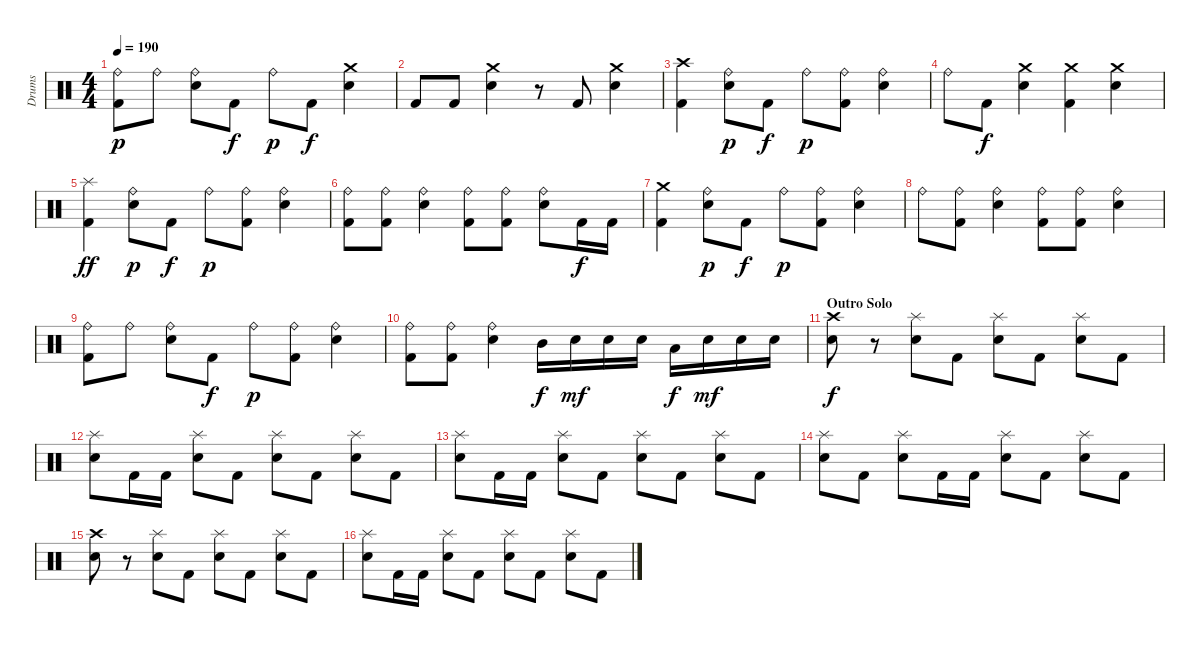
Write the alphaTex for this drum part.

\track ("Drums" "Drums") {instrument percussion}
\staff {score}
\articulation defaults
\ts (4 4)
\tempo 190
\clef neutral
\ks c
("Ride (bell)" "Kick (hit) 2").8{dy p} "Ride (bell)".8 ("Ride (bell)" "Electric Snare (hit)").8 "Kick (hit) 2".8{dy f} "Ride (bell)".8{dy p} "Kick (hit) 2".8{dy f} ("Crash medium (hit)" "Electric Snare (hit)").4 |
"Kick (hit) 2".8 "Kick (hit) 2".8 ("Crash medium (hit)" "Electric Snare (hit)").4 r.8 "Kick (hit) 2".8 ("Crash medium (hit)" "Electric Snare (hit)").4 |
("Crash high (hit)" "Kick (hit) 2").4 ("Ride (bell)" "Electric Snare (hit)").8{dy p} "Kick (hit) 2".8{dy f} "Ride (bell)".8{dy p} ("Ride (bell)" "Kick (hit) 2").8 ("Ride (bell)" "Electric Snare (hit)").4 |
"Ride (bell)".8 "Kick (hit) 2".8{dy f} ("Crash medium (hit)" "Electric Snare (hit)").4 ("Crash medium (hit)" "Kick (hit) 2").4 ("Crash medium (hit)" "Electric Snare (hit)").4 |
("Splash (hit)" "Kick (hit) 2").4{dy ff} ("Ride (bell)" "Electric Snare (hit)").8{dy p} "Kick (hit) 2".8{dy f} "Ride (bell)".8{dy p} ("Ride (bell)" "Kick (hit) 2").8 ("Ride (bell)" "Electric Snare (hit)").4 |
("Ride (bell)" "Kick (hit) 2").8 ("Ride (bell)" "Kick (hit) 2").8 ("Ride (bell)" "Electric Snare (hit)").4 ("Ride (bell)" "Kick (hit) 2").8 ("Ride (bell)" "Kick (hit) 2").8 ("Ride (bell)" "Electric Snare (hit)").8 "Kick (hit) 2".16{dy f} "Kick (hit) 2".16 |
("Crash medium (hit)" "Kick (hit) 2").4 ("Ride (bell)" "Electric Snare (hit)").8{dy p} "Kick (hit) 2".8{dy f} "Ride (bell)".8{dy p} ("Ride (bell)" "Kick (hit) 2").8 ("Ride (bell)" "Electric Snare (hit)").4 |
"Ride (bell)".8 ("Ride (bell)" "Kick (hit) 2").8 ("Ride (bell)" "Electric Snare (hit)").4 ("Ride (bell)" "Kick (hit) 2").8 ("Ride (bell)" "Kick (hit) 2").8 ("Ride (bell)" "Electric Snare (hit)").4 |
("Ride (bell)" "Kick (hit) 2").8 "Ride (bell)".8 ("Ride (bell)" "Electric Snare (hit)").8 "Kick (hit) 2".8{dy f} "Ride (bell)".8{dy p} ("Ride (bell)" "Kick (hit) 2").8 ("Ride (bell)" "Electric Snare (hit)").4 |
("Ride (bell)" "Kick (hit) 2").8 ("Ride (bell)" "Kick (hit) 2").8 ("Ride (bell)" "Electric Snare (hit)").4 "Mid Tom (hit)".16{dy f} "Electric Snare (hit)".16{dy mf} "Electric Snare (hit)".16 "Electric Snare (hit)".16 "Low Tom (hit)".16{dy f} "Electric Snare (hit)".16{dy mf} "Electric Snare (hit)".16 "Electric Snare (hit)".16 |
\section ("" "Outro Solo")
("Crash high (hit)" "Electric Snare (hit)").8{dy f} r.8 ("Splash (hit)" "Electric Snare (hit)").8 "Kick (hit) 2".8 ("Splash (hit)" "Electric Snare (hit)").8 "Kick (hit) 2".8 ("Splash (hit)" "Electric Snare (hit)").8 "Kick (hit) 2".8 |
("Splash (hit)" "Electric Snare (hit)").8 "Kick (hit) 2".16 "Kick (hit) 2".16 ("Splash (hit)" "Electric Snare (hit)").8 "Kick (hit) 2".8 ("Splash (hit)" "Electric Snare (hit)").8 "Kick (hit) 2".8 ("Splash (hit)" "Electric Snare (hit)").8 "Kick (hit) 2".8 |
("Splash (hit)" "Electric Snare (hit)").8 "Kick (hit) 2".16 "Kick (hit) 2".16 ("Splash (hit)" "Electric Snare (hit)").8 "Kick (hit) 2".8 ("Splash (hit)" "Electric Snare (hit)").8 "Kick (hit) 2".8 ("Splash (hit)" "Electric Snare (hit)").8 "Kick (hit) 2".8 |
("Splash (hit)" "Electric Snare (hit)").8 "Kick (hit) 2".8 ("Splash (hit)" "Electric Snare (hit)").8 "Kick (hit) 2".16 "Kick (hit) 2".16 ("Splash (hit)" "Electric Snare (hit)").8 "Kick (hit) 2".8 ("Splash (hit)" "Electric Snare (hit)").8 "Kick (hit) 2".8 |
("Crash high (hit)" "Electric Snare (hit)").8 r.8 ("Splash (hit)" "Electric Snare (hit)").8 "Kick (hit) 2".8 ("Splash (hit)" "Electric Snare (hit)").8 "Kick (hit) 2".8 ("Splash (hit)" "Electric Snare (hit)").8 "Kick (hit) 2".8 |
("Splash (hit)" "Electric Snare (hit)").8 "Kick (hit) 2".16 "Kick (hit) 2".16 ("Splash (hit)" "Electric Snare (hit)").8 "Kick (hit) 2".8 ("Splash (hit)" "Electric Snare (hit)").8 "Kick (hit) 2".8 ("Splash (hit)" "Electric Snare (hit)").8 "Kick (hit) 2".8
